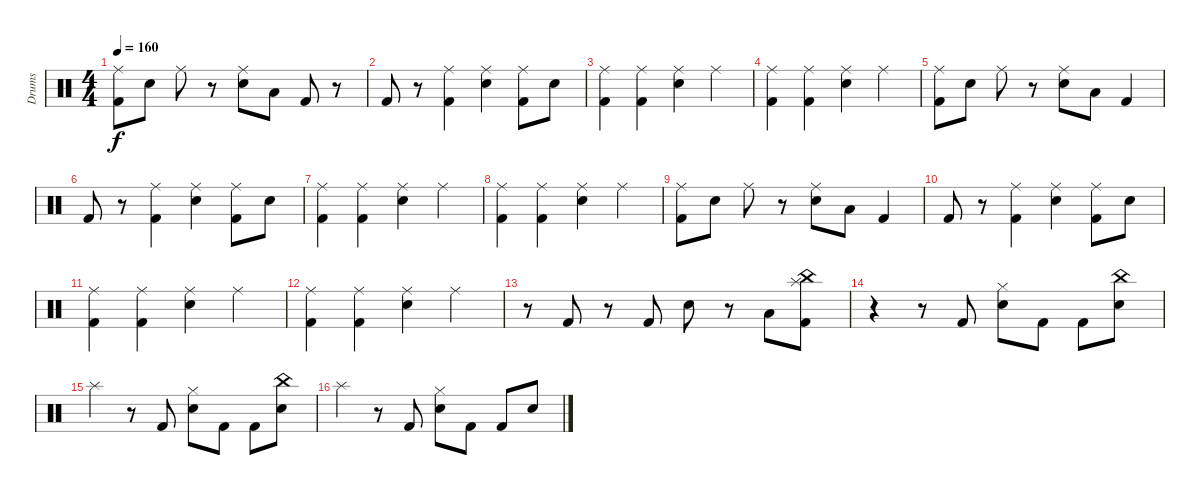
\track ("Drums" "Drums") {instrument percussion}
\staff {score}
\articulation defaults
\ts (4 4)
\tempo 160
\clef neutral
\ks c
("Ride (middle)" "Kick (hit) 2").8{dy f} "Snare (hit) 2".8 "Ride (middle)".8 r.8 ("Ride (middle)" "Snare (hit) 2").8 "Low Tom (hit)".8 "Kick (hit) 2".8 r.8 |
"Kick (hit) 2".8 r.8 ("Ride (middle)" "Kick (hit) 2").4 ("Ride (middle)" "Snare (hit) 2").4 ("Ride (middle)" "Kick (hit) 2").8 "Snare (hit) 2".8 |
("Ride (middle)" "Kick (hit) 2").4 ("Ride (middle)" "Kick (hit) 2").4 ("Ride (middle)" "Snare (hit) 2").4 "Ride (middle)".4 |
("Ride (middle)" "Kick (hit) 2").4 ("Ride (middle)" "Kick (hit) 2").4 ("Ride (middle)" "Snare (hit) 2").4 "Ride (middle)".4 |
("Ride (middle)" "Kick (hit) 2").8 "Snare (hit) 2".8 "Ride (middle)".8 r.8 ("Ride (middle)" "Snare (hit) 2").8 "Low Tom (hit)".8 "Kick (hit) 2".4 |
"Kick (hit) 2".8 r.8 ("Ride (middle)" "Kick (hit) 2").4 ("Ride (middle)" "Snare (hit) 2").4 ("Ride (middle)" "Kick (hit) 2").8 "Snare (hit) 2".8 |
("Ride (middle)" "Kick (hit) 2").4 ("Ride (middle)" "Kick (hit) 2").4 ("Ride (middle)" "Snare (hit) 2").4 "Ride (middle)".4 |
("Ride (middle)" "Kick (hit) 2").4 ("Ride (middle)" "Kick (hit) 2").4 ("Ride (middle)" "Snare (hit) 2").4 "Ride (middle)".4 |
("Ride (middle)" "Kick (hit) 2").8 "Snare (hit) 2".8 "Ride (middle)".8 r.8 ("Ride (middle)" "Snare (hit) 2").8 "Low Tom (hit)".8 "Kick (hit) 2".4 |
"Kick (hit) 2".8 r.8 ("Ride (middle)" "Kick (hit) 2").4 ("Ride (middle)" "Snare (hit) 2").4 ("Ride (middle)" "Kick (hit) 2").8 "Snare (hit) 2".8 |
("Ride (middle)" "Kick (hit) 2").4 ("Ride (middle)" "Kick (hit) 2").4 ("Ride (middle)" "Snare (hit) 2").4 "Ride (middle)".4 |
("Ride (middle)" "Kick (hit) 2").4 ("Ride (middle)" "Kick (hit) 2").4 ("Ride (middle)" "Snare (hit) 2").4 "Ride (middle)".4 |
r.8 "Kick (hit) 2".8 r.8 "Kick (hit) 2".8 "Snare (hit) 2".8 r.8 "Low Tom (hit)".8 ("Splash (hit)" "Kick (hit) 2" "China (hit)").8 |
r.4 r.8 "Kick (hit) 2".8 ("Hi-Hat (closed)" "Snare (hit) 2").8 "Kick (hit) 2".8 "Kick (hit) 2".8 ("Snare (hit) 2" "China (hit)").8 |
"Splash (hit)".4 r.8 "Kick (hit) 2".8 ("Hi-Hat (closed)" "Snare (hit) 2").8 "Kick (hit) 2".8 "Kick (hit) 2".8 ("Snare (hit) 2" "China (hit)").8 |
"Splash (hit)".4 r.8 "Kick (hit) 2".8 ("Hi-Hat (closed)" "Snare (hit) 2").8 "Kick (hit) 2".8 "Kick (hit) 2".8 "Snare (hit) 2".8
